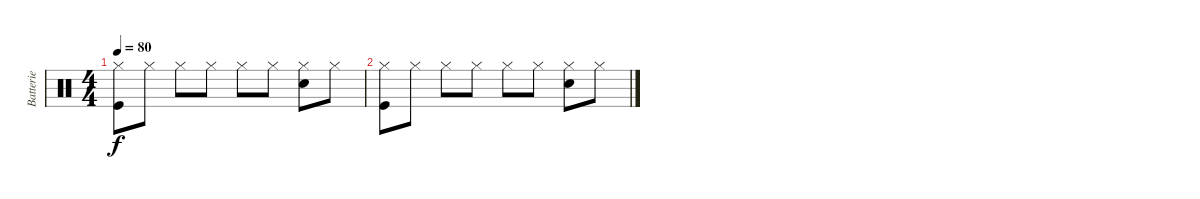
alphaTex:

\track ("Batterie" "Batterie") {instrument percussion}
\staff {score}
\articulation defaults
\ts (4 4)
\tempo 80
\clef neutral
\ks c
("Hi-Hat (closed)" "Kick (hit)").8{dy f} "Hi-Hat (closed)".8 "Hi-Hat (closed)".8 "Hi-Hat (closed)".8 "Hi-Hat (closed)".8 "Hi-Hat (closed)".8 ("Hi-Hat (closed)" "Snare (hit) 2").8 "Hi-Hat (closed)".8 |
("Hi-Hat (closed)" "Kick (hit)").8 "Hi-Hat (closed)".8 "Hi-Hat (closed)".8 "Hi-Hat (closed)".8 "Hi-Hat (closed)".8 "Hi-Hat (closed)".8 ("Hi-Hat (closed)" "Snare (hit) 2").8 "Hi-Hat (closed)".8
